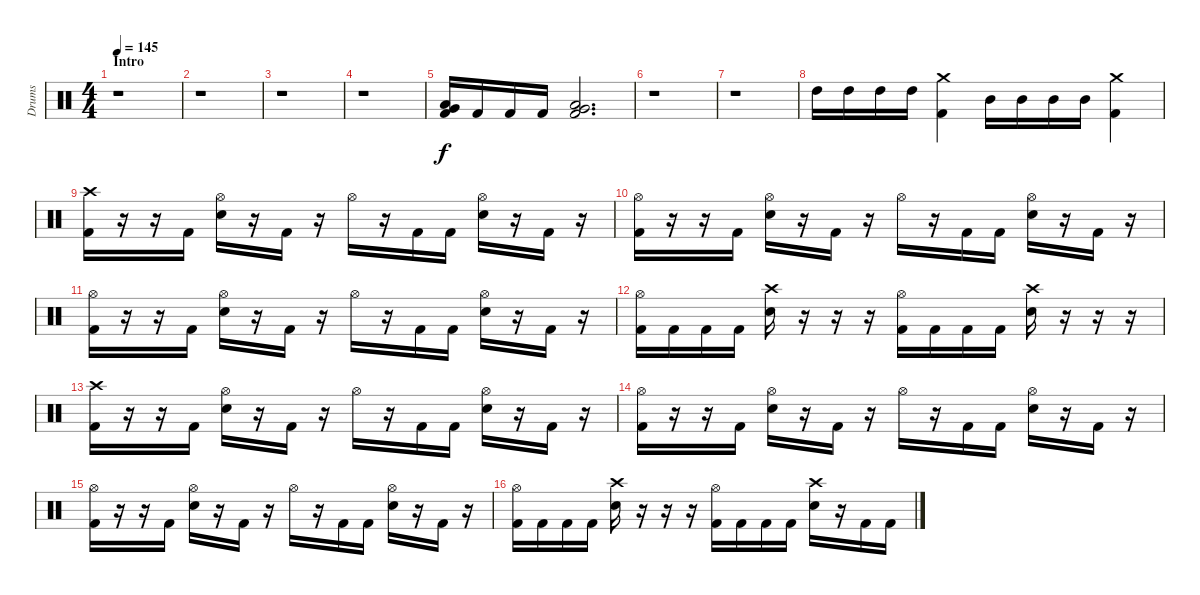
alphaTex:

\track ("Drums" "Drums") {instrument percussion}
\staff {score}
\articulation defaults
\ts (4 4)
\section ("" "Intro")
\tempo 145
\clef neutral
\ks c
r.1{dy f} |
r.1 |
r.1 |
r.1 |
("Very Low Tom (hit)" "Low Tom (hit)" "Kick (hit) 2").16 "Kick (hit) 2".16 "Kick (hit) 2".16 "Kick (hit) 2".16 ("Very Low Tom (hit)" "Low Tom (hit)" "Kick (hit) 2").2{d} |
r.1 |
r.1 |
"High Tom (hit)".16 "High Tom (hit)".16 "High Tom (hit)".16 "High Tom (hit)".16 ("Crash medium (hit)" "Kick (hit) 2").4 "Mid Tom (hit)".16 "Mid Tom (hit)".16 "Mid Tom (hit)".16 "Mid Tom (hit)".16 ("Crash medium (hit)" "Kick (hit) 2").4 |
("Crash high (hit)" "Kick (hit) 2").16 r.16 r.16 "Kick (hit) 2".16 ("Hi-Hat (open)" "Electric Snare (hit)").16 r.16 "Kick (hit) 2".16 r.16 "Hi-Hat (open)".16 r.16 "Kick (hit) 2".16 "Kick (hit) 2".16 ("Hi-Hat (open)" "Electric Snare (hit)").16 r.16 "Kick (hit) 2".16 r.16 |
("Hi-Hat (open)" "Kick (hit) 2").16 r.16 r.16 "Kick (hit) 2".16 ("Hi-Hat (open)" "Electric Snare (hit)").16 r.16 "Kick (hit) 2".16 r.16 "Hi-Hat (open)".16 r.16 "Kick (hit) 2".16 "Kick (hit) 2".16 ("Hi-Hat (open)" "Electric Snare (hit)").16 r.16 "Kick (hit) 2".16 r.16 |
("Hi-Hat (open)" "Kick (hit) 2").16 r.16 r.16 "Kick (hit) 2".16 ("Hi-Hat (open)" "Electric Snare (hit)").16 r.16 "Kick (hit) 2".16 r.16 "Hi-Hat (open)".16 r.16 "Kick (hit) 2".16 "Kick (hit) 2".16 ("Hi-Hat (open)" "Electric Snare (hit)").16 r.16 "Kick (hit) 2".16 r.16 |
("Hi-Hat (open)" "Kick (hit) 2").16 "Kick (hit) 2".16 "Kick (hit) 2".16 "Kick (hit) 2".16 ("Crash high (hit)" "Electric Snare (hit)").16 r.16 r.16 r.16 ("Hi-Hat (open)" "Kick (hit) 2").16 "Kick (hit) 2".16 "Kick (hit) 2".16 "Kick (hit) 2".16 ("Crash high (hit)" "Electric Snare (hit)").16 r.16 r.16 r.16 |
("Crash high (hit)" "Kick (hit) 2").16 r.16 r.16 "Kick (hit) 2".16 ("Hi-Hat (open)" "Electric Snare (hit)").16 r.16 "Kick (hit) 2".16 r.16 "Hi-Hat (open)".16 r.16 "Kick (hit) 2".16 "Kick (hit) 2".16 ("Hi-Hat (open)" "Electric Snare (hit)").16 r.16 "Kick (hit) 2".16 r.16 |
("Hi-Hat (open)" "Kick (hit) 2").16 r.16 r.16 "Kick (hit) 2".16 ("Hi-Hat (open)" "Electric Snare (hit)").16 r.16 "Kick (hit) 2".16 r.16 "Hi-Hat (open)".16 r.16 "Kick (hit) 2".16 "Kick (hit) 2".16 ("Hi-Hat (open)" "Electric Snare (hit)").16 r.16 "Kick (hit) 2".16 r.16 |
("Hi-Hat (open)" "Kick (hit) 2").16 r.16 r.16 "Kick (hit) 2".16 ("Hi-Hat (open)" "Electric Snare (hit)").16 r.16 "Kick (hit) 2".16 r.16 "Hi-Hat (open)".16 r.16 "Kick (hit) 2".16 "Kick (hit) 2".16 ("Hi-Hat (open)" "Electric Snare (hit)").16 r.16 "Kick (hit) 2".16 r.16 |
("Hi-Hat (open)" "Kick (hit) 2").16 "Kick (hit) 2".16 "Kick (hit) 2".16 "Kick (hit) 2".16 ("Crash high (hit)" "Electric Snare (hit)").16 r.16 r.16 r.16 ("Hi-Hat (open)" "Kick (hit) 2").16 "Kick (hit) 2".16 "Kick (hit) 2".16 "Kick (hit) 2".16 ("Crash high (hit)" "Electric Snare (hit)").16 r.16 "Kick (hit) 2".16 "Kick (hit) 2".16
